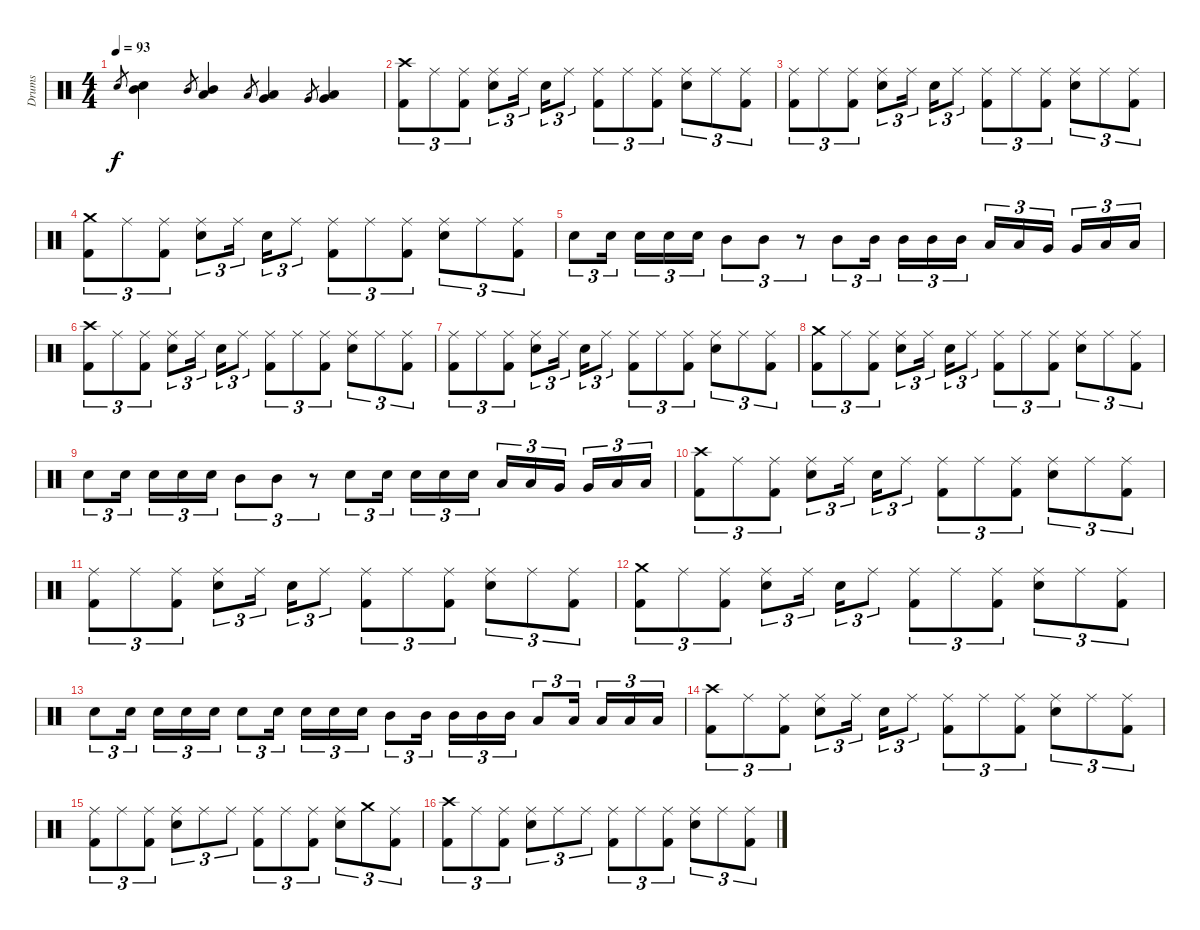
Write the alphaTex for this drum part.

\track ("Drums" "Drums") {instrument percussion}
\staff {score}
\articulation defaults
\ts (4 4)
\tempo 93
\clef neutral
\ks c "Snare (hit) 2".8{gr dy f}
("Snare (hit) 2" "Mid Tom (hit)").4 "Mid Tom (hit)".8{gr} ("Mid Tom (hit)" "Low Tom (hit)").4 "Low Tom (hit)".8{gr} ("Low Tom (hit)" "Very Low Tom (hit)").4 "Very Low Tom (hit)".8{gr} ("Very Low Tom (hit)" "Low Floor Tom (hit)").4 |
("Crash high (hit)" "Kick (hit) 2").8{tu (3 2)} "Ride (middle)".8{tu (3 2)} ("Ride (middle)" "Kick (hit) 2").8{tu (3 2)} ("Ride (middle)" "Snare (hit) 2").8{tu (3 2)} "Ride (middle)".16{tu (3 2)} "Snare (hit) 2".16{tu (3 2)} "Ride (middle)".8{tu (3 2)} ("Ride (middle)" "Kick (hit) 2").8{tu (3 2)} "Ride (middle)".8{tu (3 2)} ("Ride (middle)" "Kick (hit) 2").8{tu (3 2)} ("Ride (middle)" "Snare (hit) 2").8{tu (3 2)} "Ride (middle)".8{tu (3 2)} ("Ride (middle)" "Kick (hit) 2").8{tu (3 2)} |
("Ride (middle)" "Kick (hit) 2").8{tu (3 2)} "Ride (middle)".8{tu (3 2)} ("Ride (middle)" "Kick (hit) 2").8{tu (3 2)} ("Ride (middle)" "Snare (hit) 2").8{tu (3 2)} "Ride (middle)".16{tu (3 2)} "Snare (hit) 2".16{tu (3 2)} "Ride (middle)".8{tu (3 2)} ("Ride (middle)" "Kick (hit) 2").8{tu (3 2)} "Ride (middle)".8{tu (3 2)} ("Ride (middle)" "Kick (hit) 2").8{tu (3 2)} ("Ride (middle)" "Snare (hit) 2").8{tu (3 2)} "Ride (middle)".8{tu (3 2)} ("Ride (middle)" "Kick (hit) 2").8{tu (3 2)} |
("Crash medium (hit)" "Kick (hit) 2").8{tu (3 2)} "Ride (middle)".8{tu (3 2)} ("Ride (middle)" "Kick (hit) 2").8{tu (3 2)} ("Ride (middle)" "Snare (hit) 2").8{tu (3 2)} "Ride (middle)".16{tu (3 2)} "Snare (hit) 2".16{tu (3 2)} "Ride (middle)".8{tu (3 2)} ("Ride (middle)" "Kick (hit) 2").8{tu (3 2)} "Ride (middle)".8{tu (3 2)} ("Ride (middle)" "Kick (hit) 2").8{tu (3 2)} ("Ride (middle)" "Snare (hit) 2").8{tu (3 2)} "Ride (middle)".8{tu (3 2)} ("Ride (middle)" "Kick (hit) 2").8{tu (3 2)} |
"Snare (hit) 2".8{tu (3 2)} "Snare (hit) 2".16{tu (3 2)} "Snare (hit) 2".16{tu (3 2)} "Snare (hit) 2".16{tu (3 2)} "Snare (hit) 2".16{tu (3 2)} "Mid Tom (hit)".8{tu (3 2)} "Mid Tom (hit)".8{tu (3 2)} r.8{tu (3 2)} "Mid Tom (hit)".8{tu (3 2)} "Mid Tom (hit)".16{tu (3 2)} "Mid Tom (hit)".16{tu (3 2)} "Mid Tom (hit)".16{tu (3 2)} "Mid Tom (hit)".16{tu (3 2)} "Low Tom (hit)".16{tu (3 2)} "Low Tom (hit)".16{tu (3 2)} "Very Low Tom (hit)".16{tu (3 2)} "Very Low Tom (hit)".16{tu (3 2)} "Low Floor Tom (hit)".16{tu (3 2)} "Low Floor Tom (hit)".16{tu (3 2)} |
("Crash high (hit)" "Kick (hit) 2").8{tu (3 2)} "Ride (middle)".8{tu (3 2)} ("Ride (middle)" "Kick (hit) 2").8{tu (3 2)} ("Ride (middle)" "Snare (hit) 2").8{tu (3 2)} "Ride (middle)".16{tu (3 2)} "Snare (hit) 2".16{tu (3 2)} "Ride (middle)".8{tu (3 2)} ("Ride (middle)" "Kick (hit) 2").8{tu (3 2)} "Ride (middle)".8{tu (3 2)} ("Ride (middle)" "Kick (hit) 2").8{tu (3 2)} ("Ride (middle)" "Snare (hit) 2").8{tu (3 2)} "Ride (middle)".8{tu (3 2)} ("Ride (middle)" "Kick (hit) 2").8{tu (3 2)} |
("Ride (middle)" "Kick (hit) 2").8{tu (3 2)} "Ride (middle)".8{tu (3 2)} ("Ride (middle)" "Kick (hit) 2").8{tu (3 2)} ("Ride (middle)" "Snare (hit) 2").8{tu (3 2)} "Ride (middle)".16{tu (3 2)} "Snare (hit) 2".16{tu (3 2)} "Ride (middle)".8{tu (3 2)} ("Ride (middle)" "Kick (hit) 2").8{tu (3 2)} "Ride (middle)".8{tu (3 2)} ("Ride (middle)" "Kick (hit) 2").8{tu (3 2)} ("Ride (middle)" "Snare (hit) 2").8{tu (3 2)} "Ride (middle)".8{tu (3 2)} ("Ride (middle)" "Kick (hit) 2").8{tu (3 2)} |
("Crash medium (hit)" "Kick (hit) 2").8{tu (3 2)} "Ride (middle)".8{tu (3 2)} ("Ride (middle)" "Kick (hit) 2").8{tu (3 2)} ("Ride (middle)" "Snare (hit) 2").8{tu (3 2)} "Ride (middle)".16{tu (3 2)} "Snare (hit) 2".16{tu (3 2)} "Ride (middle)".8{tu (3 2)} ("Ride (middle)" "Kick (hit) 2").8{tu (3 2)} "Ride (middle)".8{tu (3 2)} ("Ride (middle)" "Kick (hit) 2").8{tu (3 2)} ("Ride (middle)" "Snare (hit) 2").8{tu (3 2)} "Ride (middle)".8{tu (3 2)} ("Ride (middle)" "Kick (hit) 2").8{tu (3 2)} |
"Snare (hit) 2".8{tu (3 2)} "Snare (hit) 2".16{tu (3 2)} "Snare (hit) 2".16{tu (3 2)} "Snare (hit) 2".16{tu (3 2)} "Snare (hit) 2".16{tu (3 2)} "Mid Tom (hit)".8{tu (3 2)} "Mid Tom (hit)".8{tu (3 2)} r.8{tu (3 2)} "Snare (hit) 2".8{tu (3 2)} "Snare (hit) 2".16{tu (3 2)} "Snare (hit) 2".16{tu (3 2)} "Snare (hit) 2".16{tu (3 2)} "Snare (hit) 2".16{tu (3 2)} "Low Tom (hit)".16{tu (3 2)} "Low Tom (hit)".16{tu (3 2)} "Very Low Tom (hit)".16{tu (3 2)} "Very Low Tom (hit)".16{tu (3 2)} "Low Floor Tom (hit)".16{tu (3 2)} "Low Floor Tom (hit)".16{tu (3 2)} |
("Crash high (hit)" "Kick (hit) 2").8{tu (3 2)} "Ride (middle)".8{tu (3 2)} ("Ride (middle)" "Kick (hit) 2").8{tu (3 2)} ("Ride (middle)" "Snare (hit) 2").8{tu (3 2)} "Ride (middle)".16{tu (3 2)} "Snare (hit) 2".16{tu (3 2)} "Ride (middle)".8{tu (3 2)} ("Ride (middle)" "Kick (hit) 2").8{tu (3 2)} "Ride (middle)".8{tu (3 2)} ("Ride (middle)" "Kick (hit) 2").8{tu (3 2)} ("Ride (middle)" "Snare (hit) 2").8{tu (3 2)} "Ride (middle)".8{tu (3 2)} ("Ride (middle)" "Kick (hit) 2").8{tu (3 2)} |
("Ride (middle)" "Kick (hit) 2").8{tu (3 2)} "Ride (middle)".8{tu (3 2)} ("Ride (middle)" "Kick (hit) 2").8{tu (3 2)} ("Ride (middle)" "Snare (hit) 2").8{tu (3 2)} "Ride (middle)".16{tu (3 2)} "Snare (hit) 2".16{tu (3 2)} "Ride (middle)".8{tu (3 2)} ("Ride (middle)" "Kick (hit) 2").8{tu (3 2)} "Ride (middle)".8{tu (3 2)} ("Ride (middle)" "Kick (hit) 2").8{tu (3 2)} ("Ride (middle)" "Snare (hit) 2").8{tu (3 2)} "Ride (middle)".8{tu (3 2)} ("Ride (middle)" "Kick (hit) 2").8{tu (3 2)} |
("Crash medium (hit)" "Kick (hit) 2").8{tu (3 2)} "Ride (middle)".8{tu (3 2)} ("Ride (middle)" "Kick (hit) 2").8{tu (3 2)} ("Ride (middle)" "Snare (hit) 2").8{tu (3 2)} "Ride (middle)".16{tu (3 2)} "Snare (hit) 2".16{tu (3 2)} "Ride (middle)".8{tu (3 2)} ("Ride (middle)" "Kick (hit) 2").8{tu (3 2)} "Ride (middle)".8{tu (3 2)} ("Ride (middle)" "Kick (hit) 2").8{tu (3 2)} ("Ride (middle)" "Snare (hit) 2").8{tu (3 2)} "Ride (middle)".8{tu (3 2)} ("Ride (middle)" "Kick (hit) 2").8{tu (3 2)} |
"Snare (hit) 2".8{tu (3 2)} "Snare (hit) 2".16{tu (3 2)} "Snare (hit) 2".16{tu (3 2)} "Snare (hit) 2".16{tu (3 2)} "Snare (hit) 2".16{tu (3 2)} "Snare (hit) 2".8{tu (3 2)} "Snare (hit) 2".16{tu (3 2)} "Snare (hit) 2".16{tu (3 2)} "Snare (hit) 2".16{tu (3 2)} "Snare (hit) 2".16{tu (3 2)} "Mid Tom (hit)".8{tu (3 2)} "Mid Tom (hit)".16{tu (3 2)} "Mid Tom (hit)".16{tu (3 2)} "Mid Tom (hit)".16{tu (3 2)} "Mid Tom (hit)".16{tu (3 2)} "Low Tom (hit)".8{tu (3 2)} "Low Tom (hit)".16{tu (3 2)} "Low Tom (hit)".16{tu (3 2)} "Low Tom (hit)".16{tu (3 2)} "Low Tom (hit)".16{tu (3 2)} |
\section ("" "")
("Crash high (hit)" "Kick (hit) 2").8{tu (3 2)} "Ride (middle)".8{tu (3 2)} ("Ride (middle)" "Kick (hit) 2").8{tu (3 2)} ("Ride (middle)" "Snare (hit) 2").8{tu (3 2)} "Ride (middle)".16{tu (3 2)} "Snare (hit) 2".16{tu (3 2)} "Ride (middle)".8{tu (3 2)} ("Ride (middle)" "Kick (hit) 2").8{tu (3 2)} "Ride (middle)".8{tu (3 2)} ("Ride (middle)" "Kick (hit) 2").8{tu (3 2)} ("Ride (middle)" "Snare (hit) 2").8{tu (3 2)} "Ride (middle)".8{tu (3 2)} ("Ride (middle)" "Kick (hit) 2").8{tu (3 2)} |
("Ride (middle)" "Kick (hit) 2").8{tu (3 2)} "Ride (middle)".8{tu (3 2)} ("Ride (middle)" "Kick (hit) 2").8{tu (3 2)} ("Ride (middle)" "Snare (hit) 2").8{tu (3 2)} "Ride (middle)".8{tu (3 2)} "Ride (middle)".8{tu (3 2)} ("Ride (middle)" "Kick (hit) 2").8{tu (3 2)} "Ride (middle)".8{tu (3 2)} ("Ride (middle)" "Kick (hit) 2").8{tu (3 2)} ("Ride (middle)" "Snare (hit) 2").8{tu (3 2)} "Crash medium (hit)".8{tu (3 2)} ("Ride (middle)" "Kick (hit) 2").8{tu (3 2)} |
("Crash high (hit)" "Kick (hit) 2").8{tu (3 2)} "Ride (middle)".8{tu (3 2)} ("Ride (middle)" "Kick (hit) 2").8{tu (3 2)} ("Ride (middle)" "Snare (hit) 2").8{tu (3 2)} "Ride (middle)".8{tu (3 2)} "Ride (middle)".8{tu (3 2)} ("Ride (middle)" "Kick (hit) 2").8{tu (3 2)} "Ride (middle)".8{tu (3 2)} ("Ride (middle)" "Kick (hit) 2").8{tu (3 2)} ("Ride (middle)" "Snare (hit) 2").8{tu (3 2)} "Ride (middle)".8{tu (3 2)} ("Ride (middle)" "Kick (hit) 2").8{tu (3 2)}
